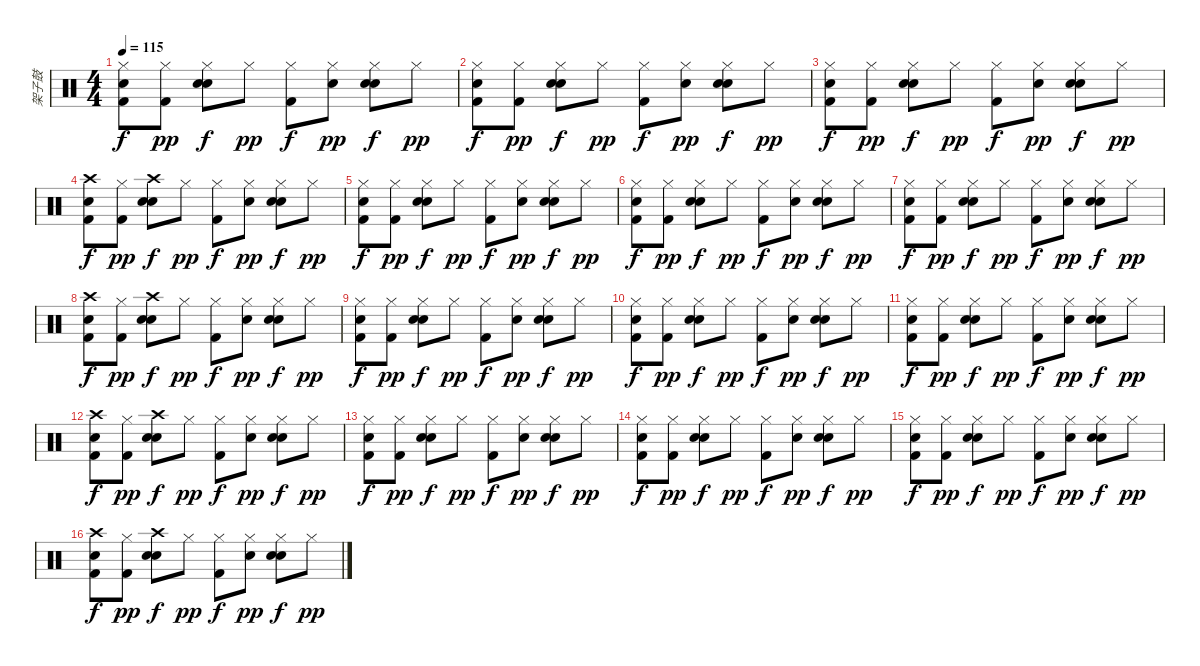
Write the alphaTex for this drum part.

\track ("架子鼓" "架子鼓") {instrument percussion}
\staff {score}
\articulation defaults
\ts (4 4)
\tempo 115
\clef neutral
\ks c
("Hi-Hat (closed)" "Electric Snare (hit)" "Kick (hit) 2").8{dy f} ("Hi-Hat (closed)" "Kick (hit) 2").8{dy pp} ("Hi-Hat (closed)" "Snare (hit) 2" "Electric Snare (hit)").8{dy f} "Hi-Hat (closed)".8{dy pp} ("Hi-Hat (closed)" "Kick (hit) 2").8{dy f} ("Hi-Hat (closed)" "Snare (hit) 2").8{dy pp} ("Hi-Hat (closed)" "Snare (hit) 2" "Electric Snare (hit)").8{dy f} "Hi-Hat (closed)".8{dy pp} |
("Hi-Hat (closed)" "Electric Snare (hit)" "Kick (hit) 2").8{dy f} ("Hi-Hat (closed)" "Kick (hit) 2").8{dy pp} ("Hi-Hat (closed)" "Snare (hit) 2" "Electric Snare (hit)").8{dy f} "Hi-Hat (closed)".8{dy pp} ("Hi-Hat (closed)" "Kick (hit) 2").8{dy f} ("Hi-Hat (closed)" "Snare (hit) 2").8{dy pp} ("Hi-Hat (closed)" "Snare (hit) 2" "Electric Snare (hit)").8{dy f} "Hi-Hat (closed)".8{dy pp} |
("Hi-Hat (closed)" "Electric Snare (hit)" "Kick (hit) 2").8{dy f} ("Hi-Hat (closed)" "Kick (hit) 2").8{dy pp} ("Hi-Hat (closed)" "Snare (hit) 2" "Electric Snare (hit)").8{dy f} "Hi-Hat (closed)".8{dy pp} ("Hi-Hat (closed)" "Kick (hit) 2").8{dy f} ("Hi-Hat (closed)" "Snare (hit) 2").8{dy pp} ("Hi-Hat (closed)" "Snare (hit) 2" "Electric Snare (hit)").8{dy f} "Hi-Hat (closed)".8{dy pp} |
("Crash high (hit)" "Electric Snare (hit)" "Kick (hit) 2").8{dy f} ("Hi-Hat (closed)" "Kick (hit) 2").8{dy pp} ("Crash high (hit)" "Snare (hit) 2" "Electric Snare (hit)").8{dy f} "Hi-Hat (closed)".8{dy pp} ("Hi-Hat (closed)" "Kick (hit) 2").8{dy f} ("Hi-Hat (closed)" "Snare (hit) 2").8{dy pp} ("Hi-Hat (closed)" "Snare (hit) 2" "Electric Snare (hit)").8{dy f} "Hi-Hat (closed)".8{dy pp} |
("Hi-Hat (closed)" "Electric Snare (hit)" "Kick (hit) 2").8{dy f} ("Hi-Hat (closed)" "Kick (hit) 2").8{dy pp} ("Hi-Hat (closed)" "Snare (hit) 2" "Electric Snare (hit)").8{dy f} "Hi-Hat (closed)".8{dy pp} ("Hi-Hat (closed)" "Kick (hit) 2").8{dy f} ("Hi-Hat (closed)" "Snare (hit) 2").8{dy pp} ("Hi-Hat (closed)" "Snare (hit) 2" "Electric Snare (hit)").8{dy f} "Hi-Hat (closed)".8{dy pp} |
("Hi-Hat (closed)" "Electric Snare (hit)" "Kick (hit) 2").8{dy f} ("Hi-Hat (closed)" "Kick (hit) 2").8{dy pp} ("Hi-Hat (closed)" "Snare (hit) 2" "Electric Snare (hit)").8{dy f} "Hi-Hat (closed)".8{dy pp} ("Hi-Hat (closed)" "Kick (hit) 2").8{dy f} ("Hi-Hat (closed)" "Snare (hit) 2").8{dy pp} ("Hi-Hat (closed)" "Snare (hit) 2" "Electric Snare (hit)").8{dy f} "Hi-Hat (closed)".8{dy pp} |
("Hi-Hat (closed)" "Electric Snare (hit)" "Kick (hit) 2").8{dy f} ("Hi-Hat (closed)" "Kick (hit) 2").8{dy pp} ("Hi-Hat (closed)" "Snare (hit) 2" "Electric Snare (hit)").8{dy f} "Hi-Hat (closed)".8{dy pp} ("Hi-Hat (closed)" "Kick (hit) 2").8{dy f} ("Hi-Hat (closed)" "Snare (hit) 2").8{dy pp} ("Hi-Hat (closed)" "Snare (hit) 2" "Electric Snare (hit)").8{dy f} "Hi-Hat (closed)".8{dy pp} |
("Crash high (hit)" "Electric Snare (hit)" "Kick (hit) 2").8{dy f} ("Hi-Hat (closed)" "Kick (hit) 2").8{dy pp} ("Crash high (hit)" "Snare (hit) 2" "Electric Snare (hit)").8{dy f} "Hi-Hat (closed)".8{dy pp} ("Hi-Hat (closed)" "Kick (hit) 2").8{dy f} ("Hi-Hat (closed)" "Snare (hit) 2").8{dy pp} ("Hi-Hat (closed)" "Snare (hit) 2" "Electric Snare (hit)").8{dy f} "Hi-Hat (closed)".8{dy pp} |
("Hi-Hat (closed)" "Electric Snare (hit)" "Kick (hit) 2").8{dy f} ("Hi-Hat (closed)" "Kick (hit) 2").8{dy pp} ("Hi-Hat (closed)" "Snare (hit) 2" "Electric Snare (hit)").8{dy f} "Hi-Hat (closed)".8{dy pp} ("Hi-Hat (closed)" "Kick (hit) 2").8{dy f} ("Hi-Hat (closed)" "Snare (hit) 2").8{dy pp} ("Hi-Hat (closed)" "Snare (hit) 2" "Electric Snare (hit)").8{dy f} "Hi-Hat (closed)".8{dy pp} |
("Hi-Hat (closed)" "Electric Snare (hit)" "Kick (hit) 2").8{dy f} ("Hi-Hat (closed)" "Kick (hit) 2").8{dy pp} ("Hi-Hat (closed)" "Snare (hit) 2" "Electric Snare (hit)").8{dy f} "Hi-Hat (closed)".8{dy pp} ("Hi-Hat (closed)" "Kick (hit) 2").8{dy f} ("Hi-Hat (closed)" "Snare (hit) 2").8{dy pp} ("Hi-Hat (closed)" "Snare (hit) 2" "Electric Snare (hit)").8{dy f} "Hi-Hat (closed)".8{dy pp} |
("Hi-Hat (closed)" "Electric Snare (hit)" "Kick (hit) 2").8{dy f} ("Hi-Hat (closed)" "Kick (hit) 2").8{dy pp} ("Hi-Hat (closed)" "Snare (hit) 2" "Electric Snare (hit)").8{dy f} "Hi-Hat (closed)".8{dy pp} ("Hi-Hat (closed)" "Kick (hit) 2").8{dy f} ("Hi-Hat (closed)" "Snare (hit) 2").8{dy pp} ("Hi-Hat (closed)" "Snare (hit) 2" "Electric Snare (hit)").8{dy f} "Hi-Hat (closed)".8{dy pp} |
("Crash high (hit)" "Electric Snare (hit)" "Kick (hit) 2").8{dy f} ("Hi-Hat (closed)" "Kick (hit) 2").8{dy pp} ("Crash high (hit)" "Snare (hit) 2" "Electric Snare (hit)").8{dy f} "Hi-Hat (closed)".8{dy pp} ("Hi-Hat (closed)" "Kick (hit) 2").8{dy f} ("Hi-Hat (closed)" "Snare (hit) 2").8{dy pp} ("Hi-Hat (closed)" "Snare (hit) 2" "Electric Snare (hit)").8{dy f} "Hi-Hat (closed)".8{dy pp} |
("Hi-Hat (closed)" "Electric Snare (hit)" "Kick (hit) 2").8{dy f} ("Hi-Hat (closed)" "Kick (hit) 2").8{dy pp} ("Hi-Hat (closed)" "Snare (hit) 2" "Electric Snare (hit)").8{dy f} "Hi-Hat (closed)".8{dy pp} ("Hi-Hat (closed)" "Kick (hit) 2").8{dy f} ("Hi-Hat (closed)" "Snare (hit) 2").8{dy pp} ("Hi-Hat (closed)" "Snare (hit) 2" "Electric Snare (hit)").8{dy f} "Hi-Hat (closed)".8{dy pp} |
("Hi-Hat (closed)" "Electric Snare (hit)" "Kick (hit) 2").8{dy f} ("Hi-Hat (closed)" "Kick (hit) 2").8{dy pp} ("Hi-Hat (closed)" "Snare (hit) 2" "Electric Snare (hit)").8{dy f} "Hi-Hat (closed)".8{dy pp} ("Hi-Hat (closed)" "Kick (hit) 2").8{dy f} ("Hi-Hat (closed)" "Snare (hit) 2").8{dy pp} ("Hi-Hat (closed)" "Snare (hit) 2" "Electric Snare (hit)").8{dy f} "Hi-Hat (closed)".8{dy pp} |
("Hi-Hat (closed)" "Electric Snare (hit)" "Kick (hit) 2").8{dy f} ("Hi-Hat (closed)" "Kick (hit) 2").8{dy pp} ("Hi-Hat (closed)" "Snare (hit) 2" "Electric Snare (hit)").8{dy f} "Hi-Hat (closed)".8{dy pp} ("Hi-Hat (closed)" "Kick (hit) 2").8{dy f} ("Hi-Hat (closed)" "Snare (hit) 2").8{dy pp} ("Hi-Hat (closed)" "Snare (hit) 2" "Electric Snare (hit)").8{dy f} "Hi-Hat (closed)".8{dy pp} |
("Crash high (hit)" "Electric Snare (hit)" "Kick (hit) 2").8{dy f} ("Hi-Hat (closed)" "Kick (hit) 2").8{dy pp} ("Crash high (hit)" "Snare (hit) 2" "Electric Snare (hit)").8{dy f} "Hi-Hat (closed)".8{dy pp} ("Hi-Hat (closed)" "Kick (hit) 2").8{dy f} ("Hi-Hat (closed)" "Snare (hit) 2").8{dy pp} ("Hi-Hat (closed)" "Snare (hit) 2" "Electric Snare (hit)").8{dy f} "Hi-Hat (closed)".8{dy pp}
